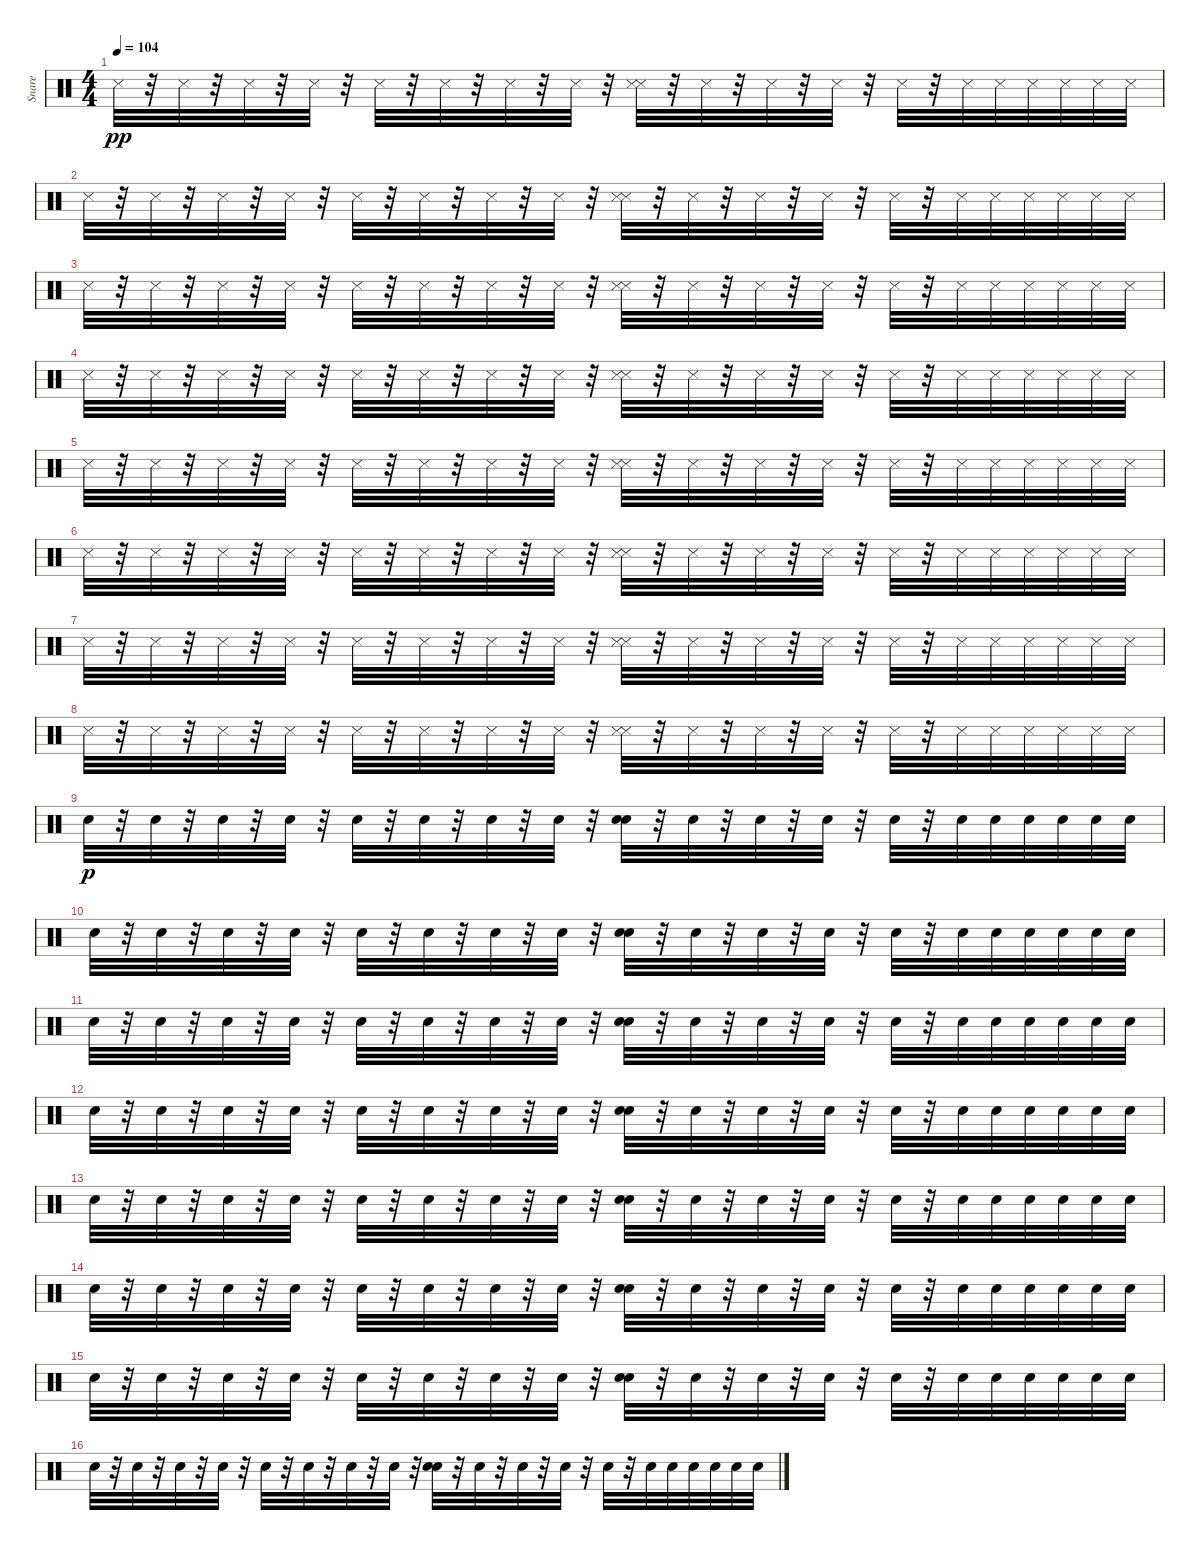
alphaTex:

\track ("Snare" "Snare") {instrument percussion}
\staff {score}
\articulation defaults
\ts (4 4)
\tempo 104
\clef neutral
\ks c "Snare (side stick) 3".32{dy pp}
r.32 "Snare (side stick) 3".32 r.32 "Snare (side stick) 3".32 r.32 "Snare (side stick) 3".32 r.32 "Snare (side stick) 3".32 r.32 "Snare (side stick) 3".32 r.32 "Snare (side stick) 3".32 r.32 "Snare (side stick) 3".32 r.32 ("Snare (side stick) 3" "Snare (side stick) 3").32 r.32 "Snare (side stick) 3".32 r.32 "Snare (side stick) 3".32 r.32 "Snare (side stick) 3".32 r.32 "Snare (side stick) 3".32 r.32 "Snare (side stick) 3".32 "Snare (side stick) 3".32 "Snare (side stick) 3".32 "Snare (side stick) 3".32 "Snare (side stick) 3".32 "Snare (side stick) 3".32 |
"Snare (side stick) 3".32 r.32 "Snare (side stick) 3".32 r.32 "Snare (side stick) 3".32 r.32 "Snare (side stick) 3".32 r.32 "Snare (side stick) 3".32 r.32 "Snare (side stick) 3".32 r.32 "Snare (side stick) 3".32 r.32 "Snare (side stick) 3".32 r.32 ("Snare (side stick) 3" "Snare (side stick) 3").32 r.32 "Snare (side stick) 3".32 r.32 "Snare (side stick) 3".32 r.32 "Snare (side stick) 3".32 r.32 "Snare (side stick) 3".32 r.32 "Snare (side stick) 3".32 "Snare (side stick) 3".32 "Snare (side stick) 3".32 "Snare (side stick) 3".32 "Snare (side stick) 3".32 "Snare (side stick) 3".32 |
"Snare (side stick) 3".32 r.32 "Snare (side stick) 3".32 r.32 "Snare (side stick) 3".32 r.32 "Snare (side stick) 3".32 r.32 "Snare (side stick) 3".32 r.32 "Snare (side stick) 3".32 r.32 "Snare (side stick) 3".32 r.32 "Snare (side stick) 3".32 r.32 ("Snare (side stick) 3" "Snare (side stick) 3").32 r.32 "Snare (side stick) 3".32 r.32 "Snare (side stick) 3".32 r.32 "Snare (side stick) 3".32 r.32 "Snare (side stick) 3".32 r.32 "Snare (side stick) 3".32 "Snare (side stick) 3".32 "Snare (side stick) 3".32 "Snare (side stick) 3".32 "Snare (side stick) 3".32 "Snare (side stick) 3".32 |
"Snare (side stick) 3".32 r.32 "Snare (side stick) 3".32 r.32 "Snare (side stick) 3".32 r.32 "Snare (side stick) 3".32 r.32 "Snare (side stick) 3".32 r.32 "Snare (side stick) 3".32 r.32 "Snare (side stick) 3".32 r.32 "Snare (side stick) 3".32 r.32 ("Snare (side stick) 3" "Snare (side stick) 3").32 r.32 "Snare (side stick) 3".32 r.32 "Snare (side stick) 3".32 r.32 "Snare (side stick) 3".32 r.32 "Snare (side stick) 3".32 r.32 "Snare (side stick) 3".32 "Snare (side stick) 3".32 "Snare (side stick) 3".32 "Snare (side stick) 3".32 "Snare (side stick) 3".32 "Snare (side stick) 3".32 |
"Snare (side stick) 3".32 r.32 "Snare (side stick) 3".32 r.32 "Snare (side stick) 3".32 r.32 "Snare (side stick) 3".32 r.32 "Snare (side stick) 3".32 r.32 "Snare (side stick) 3".32 r.32 "Snare (side stick) 3".32 r.32 "Snare (side stick) 3".32 r.32 ("Snare (side stick) 3" "Snare (side stick) 3").32 r.32 "Snare (side stick) 3".32 r.32 "Snare (side stick) 3".32 r.32 "Snare (side stick) 3".32 r.32 "Snare (side stick) 3".32 r.32 "Snare (side stick) 3".32 "Snare (side stick) 3".32 "Snare (side stick) 3".32 "Snare (side stick) 3".32 "Snare (side stick) 3".32 "Snare (side stick) 3".32 |
"Snare (side stick) 3".32 r.32 "Snare (side stick) 3".32 r.32 "Snare (side stick) 3".32 r.32 "Snare (side stick) 3".32 r.32 "Snare (side stick) 3".32 r.32 "Snare (side stick) 3".32 r.32 "Snare (side stick) 3".32 r.32 "Snare (side stick) 3".32 r.32 ("Snare (side stick) 3" "Snare (side stick) 3").32 r.32 "Snare (side stick) 3".32 r.32 "Snare (side stick) 3".32 r.32 "Snare (side stick) 3".32 r.32 "Snare (side stick) 3".32 r.32 "Snare (side stick) 3".32 "Snare (side stick) 3".32 "Snare (side stick) 3".32 "Snare (side stick) 3".32 "Snare (side stick) 3".32 "Snare (side stick) 3".32 |
"Snare (side stick) 3".32 r.32 "Snare (side stick) 3".32 r.32 "Snare (side stick) 3".32 r.32 "Snare (side stick) 3".32 r.32 "Snare (side stick) 3".32 r.32 "Snare (side stick) 3".32 r.32 "Snare (side stick) 3".32 r.32 "Snare (side stick) 3".32 r.32 ("Snare (side stick) 3" "Snare (side stick) 3").32 r.32 "Snare (side stick) 3".32 r.32 "Snare (side stick) 3".32 r.32 "Snare (side stick) 3".32 r.32 "Snare (side stick) 3".32 r.32 "Snare (side stick) 3".32 "Snare (side stick) 3".32 "Snare (side stick) 3".32 "Snare (side stick) 3".32 "Snare (side stick) 3".32 "Snare (side stick) 3".32 |
"Snare (side stick) 3".32 r.32 "Snare (side stick) 3".32 r.32 "Snare (side stick) 3".32 r.32 "Snare (side stick) 3".32 r.32 "Snare (side stick) 3".32 r.32 "Snare (side stick) 3".32 r.32 "Snare (side stick) 3".32 r.32 "Snare (side stick) 3".32 r.32 ("Snare (side stick) 3" "Snare (side stick) 3").32 r.32 "Snare (side stick) 3".32 r.32 "Snare (side stick) 3".32 r.32 "Snare (side stick) 3".32 r.32 "Snare (side stick) 3".32 r.32 "Snare (side stick) 3".32 "Snare (side stick) 3".32 "Snare (side stick) 3".32 "Snare (side stick) 3".32 "Snare (side stick) 3".32 "Snare (side stick) 3".32 |
"Snare (hit) 2".32{dy p} r.32 "Snare (hit) 2".32 r.32 "Snare (hit) 2".32 r.32 "Snare (hit) 2".32 r.32 "Snare (hit) 2".32 r.32 "Snare (hit) 2".32 r.32 "Snare (hit) 2".32 r.32 "Snare (hit) 2".32 r.32 ("Snare (hit) 2" "Snare (hit) 2").32 r.32 "Snare (hit) 2".32 r.32 "Snare (hit) 2".32 r.32 "Snare (hit) 2".32 r.32 "Snare (hit) 2".32 r.32 "Snare (hit) 2".32 "Snare (hit) 2".32 "Snare (hit) 2".32 "Snare (hit) 2".32 "Snare (hit) 2".32 "Snare (hit) 2".32 |
"Snare (hit) 2".32 r.32 "Snare (hit) 2".32 r.32 "Snare (hit) 2".32 r.32 "Snare (hit) 2".32 r.32 "Snare (hit) 2".32 r.32 "Snare (hit) 2".32 r.32 "Snare (hit) 2".32 r.32 "Snare (hit) 2".32 r.32 ("Snare (hit) 2" "Snare (hit) 2").32 r.32 "Snare (hit) 2".32 r.32 "Snare (hit) 2".32 r.32 "Snare (hit) 2".32 r.32 "Snare (hit) 2".32 r.32 "Snare (hit) 2".32 "Snare (hit) 2".32 "Snare (hit) 2".32 "Snare (hit) 2".32 "Snare (hit) 2".32 "Snare (hit) 2".32 |
"Snare (hit) 2".32 r.32 "Snare (hit) 2".32 r.32 "Snare (hit) 2".32 r.32 "Snare (hit) 2".32 r.32 "Snare (hit) 2".32 r.32 "Snare (hit) 2".32 r.32 "Snare (hit) 2".32 r.32 "Snare (hit) 2".32 r.32 ("Snare (hit) 2" "Snare (hit) 2").32 r.32 "Snare (hit) 2".32 r.32 "Snare (hit) 2".32 r.32 "Snare (hit) 2".32 r.32 "Snare (hit) 2".32 r.32 "Snare (hit) 2".32 "Snare (hit) 2".32 "Snare (hit) 2".32 "Snare (hit) 2".32 "Snare (hit) 2".32 "Snare (hit) 2".32 |
"Snare (hit) 2".32 r.32 "Snare (hit) 2".32 r.32 "Snare (hit) 2".32 r.32 "Snare (hit) 2".32 r.32 "Snare (hit) 2".32 r.32 "Snare (hit) 2".32 r.32 "Snare (hit) 2".32 r.32 "Snare (hit) 2".32 r.32 ("Snare (hit) 2" "Snare (hit) 2").32 r.32 "Snare (hit) 2".32 r.32 "Snare (hit) 2".32 r.32 "Snare (hit) 2".32 r.32 "Snare (hit) 2".32 r.32 "Snare (hit) 2".32 "Snare (hit) 2".32 "Snare (hit) 2".32 "Snare (hit) 2".32 "Snare (hit) 2".32 "Snare (hit) 2".32 |
"Snare (hit) 2".32 r.32 "Snare (hit) 2".32 r.32 "Snare (hit) 2".32 r.32 "Snare (hit) 2".32 r.32 "Snare (hit) 2".32 r.32 "Snare (hit) 2".32 r.32 "Snare (hit) 2".32 r.32 "Snare (hit) 2".32 r.32 ("Snare (hit) 2" "Snare (hit) 2").32 r.32 "Snare (hit) 2".32 r.32 "Snare (hit) 2".32 r.32 "Snare (hit) 2".32 r.32 "Snare (hit) 2".32 r.32 "Snare (hit) 2".32 "Snare (hit) 2".32 "Snare (hit) 2".32 "Snare (hit) 2".32 "Snare (hit) 2".32 "Snare (hit) 2".32 |
"Snare (hit) 2".32 r.32 "Snare (hit) 2".32 r.32 "Snare (hit) 2".32 r.32 "Snare (hit) 2".32 r.32 "Snare (hit) 2".32 r.32 "Snare (hit) 2".32 r.32 "Snare (hit) 2".32 r.32 "Snare (hit) 2".32 r.32 ("Snare (hit) 2" "Snare (hit) 2").32 r.32 "Snare (hit) 2".32 r.32 "Snare (hit) 2".32 r.32 "Snare (hit) 2".32 r.32 "Snare (hit) 2".32 r.32 "Snare (hit) 2".32 "Snare (hit) 2".32 "Snare (hit) 2".32 "Snare (hit) 2".32 "Snare (hit) 2".32 "Snare (hit) 2".32 |
"Snare (hit) 2".32 r.32 "Snare (hit) 2".32 r.32 "Snare (hit) 2".32 r.32 "Snare (hit) 2".32 r.32 "Snare (hit) 2".32 r.32 "Snare (hit) 2".32 r.32 "Snare (hit) 2".32 r.32 "Snare (hit) 2".32 r.32 ("Snare (hit) 2" "Snare (hit) 2").32 r.32 "Snare (hit) 2".32 r.32 "Snare (hit) 2".32 r.32 "Snare (hit) 2".32 r.32 "Snare (hit) 2".32 r.32 "Snare (hit) 2".32 "Snare (hit) 2".32 "Snare (hit) 2".32 "Snare (hit) 2".32 "Snare (hit) 2".32 "Snare (hit) 2".32 |
"Snare (hit) 2".32 r.32 "Snare (hit) 2".32 r.32 "Snare (hit) 2".32 r.32 "Snare (hit) 2".32 r.32 "Snare (hit) 2".32 r.32 "Snare (hit) 2".32 r.32 "Snare (hit) 2".32 r.32 "Snare (hit) 2".32 r.32 ("Snare (hit) 2" "Snare (hit) 2").32 r.32 "Snare (hit) 2".32 r.32 "Snare (hit) 2".32 r.32 "Snare (hit) 2".32 r.32 "Snare (hit) 2".32 r.32 "Snare (hit) 2".32 "Snare (hit) 2".32 "Snare (hit) 2".32 "Snare (hit) 2".32 "Snare (hit) 2".32 "Snare (hit) 2".32
